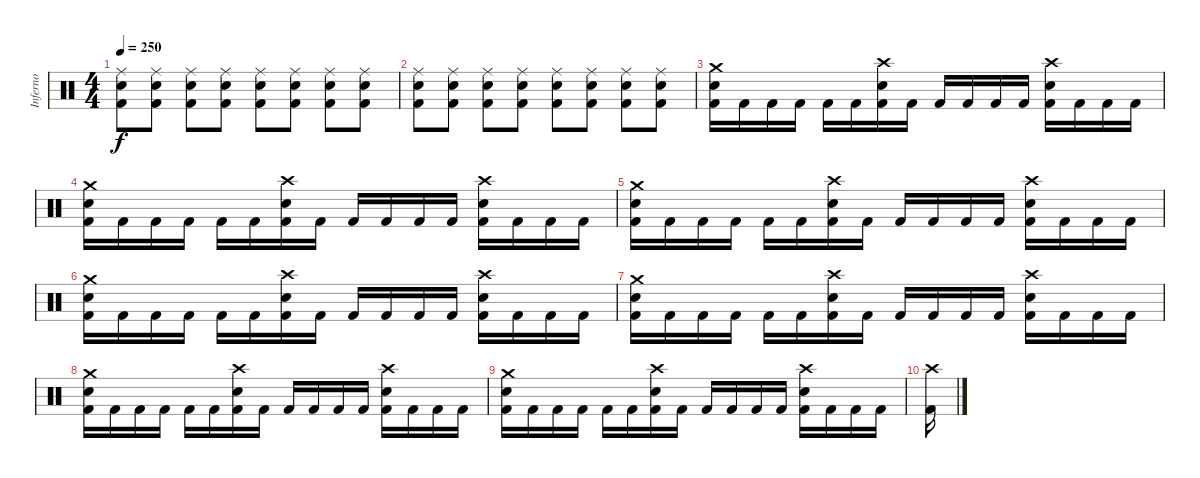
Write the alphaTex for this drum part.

\track ("Inferno" "Inferno") {instrument percussion}
\staff {score}
\articulation defaults
\ts (4 4)
\tempo 250
\clef neutral
\ks c
("Ride (middle)" "Electric Snare (hit)" "Kick (hit) 2").8{dy f} ("Ride (middle)" "Electric Snare (hit)" "Kick (hit) 2").8 ("Ride (middle)" "Electric Snare (hit)" "Kick (hit) 2").8 ("Ride (middle)" "Electric Snare (hit)" "Kick (hit) 2").8 ("Ride (middle)" "Electric Snare (hit)" "Kick (hit) 2").8 ("Ride (middle)" "Electric Snare (hit)" "Kick (hit) 2").8 ("Ride (middle)" "Electric Snare (hit)" "Kick (hit) 2").8 ("Ride (middle)" "Electric Snare (hit)" "Kick (hit) 2").8 |
("Ride (middle)" "Electric Snare (hit)" "Kick (hit) 2").8 ("Ride (middle)" "Electric Snare (hit)" "Kick (hit) 2").8 ("Ride (middle)" "Electric Snare (hit)" "Kick (hit) 2").8 ("Ride (middle)" "Electric Snare (hit)" "Kick (hit) 2").8 ("Ride (middle)" "Electric Snare (hit)" "Kick (hit) 2").8 ("Ride (middle)" "Electric Snare (hit)" "Kick (hit) 2").8 ("Ride (middle)" "Electric Snare (hit)" "Kick (hit) 2").8 ("Ride (middle)" "Electric Snare (hit)" "Kick (hit) 2").8 |
("Crash medium (hit)" "Electric Snare (hit)" "Kick (hit) 2").16 "Kick (hit) 2".16 "Kick (hit) 2".16 "Kick (hit) 2".16 "Kick (hit) 2".16 "Kick (hit) 2".16 ("Crash high (hit)" "Electric Snare (hit)" "Kick (hit) 2").16 "Kick (hit) 2".16 "Kick (hit) 2".16 "Kick (hit) 2".16 "Kick (hit) 2".16 "Kick (hit) 2".16 ("Crash high (hit)" "Electric Snare (hit)" "Kick (hit) 2").16 "Kick (hit) 2".16 "Kick (hit) 2".16 "Kick (hit) 2".16 |
("Crash medium (hit)" "Electric Snare (hit)" "Kick (hit) 2").16 "Kick (hit) 2".16 "Kick (hit) 2".16 "Kick (hit) 2".16 "Kick (hit) 2".16 "Kick (hit) 2".16 ("Crash high (hit)" "Electric Snare (hit)" "Kick (hit) 2").16 "Kick (hit) 2".16 "Kick (hit) 2".16 "Kick (hit) 2".16 "Kick (hit) 2".16 "Kick (hit) 2".16 ("Crash high (hit)" "Electric Snare (hit)" "Kick (hit) 2").16 "Kick (hit) 2".16 "Kick (hit) 2".16 "Kick (hit) 2".16 |
("Crash medium (hit)" "Electric Snare (hit)" "Kick (hit) 2").16 "Kick (hit) 2".16 "Kick (hit) 2".16 "Kick (hit) 2".16 "Kick (hit) 2".16 "Kick (hit) 2".16 ("Crash high (hit)" "Electric Snare (hit)" "Kick (hit) 2").16 "Kick (hit) 2".16 "Kick (hit) 2".16 "Kick (hit) 2".16 "Kick (hit) 2".16 "Kick (hit) 2".16 ("Crash high (hit)" "Electric Snare (hit)" "Kick (hit) 2").16 "Kick (hit) 2".16 "Kick (hit) 2".16 "Kick (hit) 2".16 |
("Crash medium (hit)" "Electric Snare (hit)" "Kick (hit) 2").16 "Kick (hit) 2".16 "Kick (hit) 2".16 "Kick (hit) 2".16 "Kick (hit) 2".16 "Kick (hit) 2".16 ("Crash high (hit)" "Electric Snare (hit)" "Kick (hit) 2").16 "Kick (hit) 2".16 "Kick (hit) 2".16 "Kick (hit) 2".16 "Kick (hit) 2".16 "Kick (hit) 2".16 ("Crash high (hit)" "Electric Snare (hit)" "Kick (hit) 2").16 "Kick (hit) 2".16 "Kick (hit) 2".16 "Kick (hit) 2".16 |
("Crash medium (hit)" "Electric Snare (hit)" "Kick (hit) 2").16 "Kick (hit) 2".16 "Kick (hit) 2".16 "Kick (hit) 2".16 "Kick (hit) 2".16 "Kick (hit) 2".16 ("Crash high (hit)" "Electric Snare (hit)" "Kick (hit) 2").16 "Kick (hit) 2".16 "Kick (hit) 2".16 "Kick (hit) 2".16 "Kick (hit) 2".16 "Kick (hit) 2".16 ("Crash high (hit)" "Electric Snare (hit)" "Kick (hit) 2").16 "Kick (hit) 2".16 "Kick (hit) 2".16 "Kick (hit) 2".16 |
("Crash medium (hit)" "Electric Snare (hit)" "Kick (hit) 2").16 "Kick (hit) 2".16 "Kick (hit) 2".16 "Kick (hit) 2".16 "Kick (hit) 2".16 "Kick (hit) 2".16 ("Crash high (hit)" "Electric Snare (hit)" "Kick (hit) 2").16 "Kick (hit) 2".16 "Kick (hit) 2".16 "Kick (hit) 2".16 "Kick (hit) 2".16 "Kick (hit) 2".16 ("Crash high (hit)" "Electric Snare (hit)" "Kick (hit) 2").16 "Kick (hit) 2".16 "Kick (hit) 2".16 "Kick (hit) 2".16 |
("Crash medium (hit)" "Electric Snare (hit)" "Kick (hit) 2").16 "Kick (hit) 2".16 "Kick (hit) 2".16 "Kick (hit) 2".16 "Kick (hit) 2".16 "Kick (hit) 2".16 ("Crash high (hit)" "Electric Snare (hit)" "Kick (hit) 2").16 "Kick (hit) 2".16 "Kick (hit) 2".16 "Kick (hit) 2".16 "Kick (hit) 2".16 "Kick (hit) 2".16 ("Crash high (hit)" "Electric Snare (hit)" "Kick (hit) 2").16 "Kick (hit) 2".16 "Kick (hit) 2".16 "Kick (hit) 2".16 |
("Crash high (hit)" "Kick (hit) 2").16
